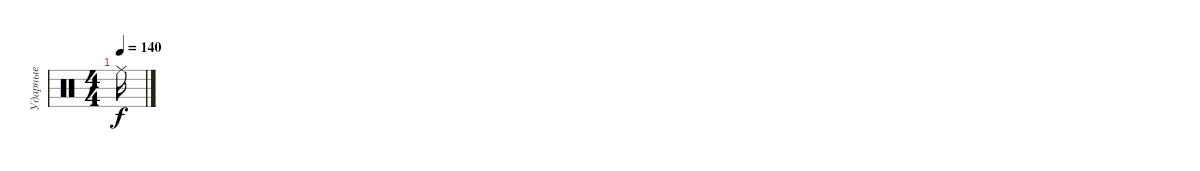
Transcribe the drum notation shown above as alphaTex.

\track ("Ударные" "Ударные") {instrument percussion}
\staff {score}
\articulation defaults
\ts (4 4)
\tempo 140
\clef neutral
\ks c "Ride (middle)".16{dy f}
